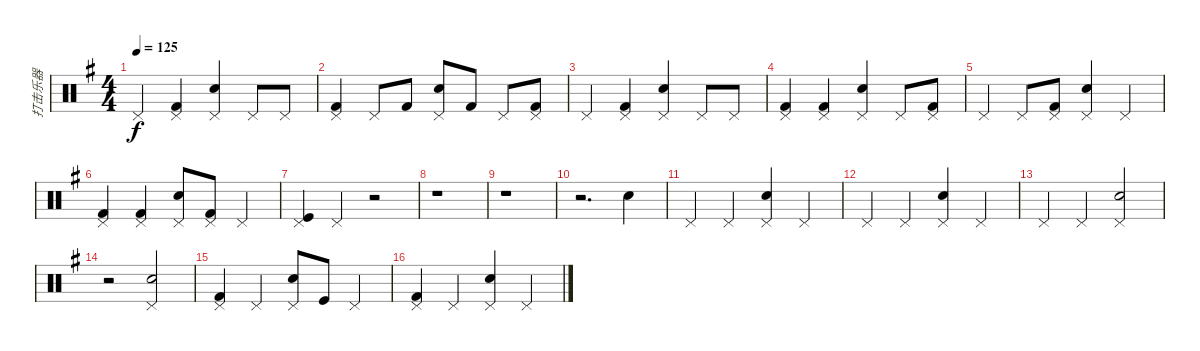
\track ("打击乐器" "打击乐器") {instrument percussion}
\staff {score}
\articulation defaults
\ts (4 4)
\tempo 125
\clef neutral
\ks g "Pedal Hi-Hat (hit)".4{dy f}
("Pedal Hi-Hat (hit)" "Kick (hit) 2").4 ("Pedal Hi-Hat (hit)" "Snare (hit) 2").4 "Pedal Hi-Hat (hit)".8 "Pedal Hi-Hat (hit)".8 |
("Pedal Hi-Hat (hit)" "Kick (hit) 2").4 "Pedal Hi-Hat (hit)".8 "Kick (hit) 2".8 ("Pedal Hi-Hat (hit)" "Snare (hit) 2").8 "Kick (hit) 2".8 "Pedal Hi-Hat (hit)".8 ("Pedal Hi-Hat (hit)" "Kick (hit) 2").8 |
"Pedal Hi-Hat (hit)".4 ("Pedal Hi-Hat (hit)" "Kick (hit) 2").4 ("Pedal Hi-Hat (hit)" "Snare (hit) 2").4 "Pedal Hi-Hat (hit)".8 "Pedal Hi-Hat (hit)".8 |
("Pedal Hi-Hat (hit)" "Kick (hit) 2").4 ("Pedal Hi-Hat (hit)" "Kick (hit) 2").4 ("Pedal Hi-Hat (hit)" "Snare (hit) 2").4 "Pedal Hi-Hat (hit)".8 ("Pedal Hi-Hat (hit)" "Kick (hit) 2").8 |
"Pedal Hi-Hat (hit)".4 "Pedal Hi-Hat (hit)".8 ("Pedal Hi-Hat (hit)" "Kick (hit) 2").8 ("Pedal Hi-Hat (hit)" "Snare (hit) 2").4 "Pedal Hi-Hat (hit)".4 |
("Pedal Hi-Hat (hit)" "Kick (hit) 2").4 ("Pedal Hi-Hat (hit)" "Kick (hit) 2").4 ("Pedal Hi-Hat (hit)" "Snare (hit) 2").8 ("Pedal Hi-Hat (hit)" "Kick (hit) 2").8 "Pedal Hi-Hat (hit)".4 |
("Pedal Hi-Hat (hit)" "Kick (hit)").4 "Pedal Hi-Hat (hit)".4 r.2 |
r.1 |
r.1 |
r.2{d} "Snare (hit) 2".4 |
"Pedal Hi-Hat (hit)".4 "Pedal Hi-Hat (hit)".4 ("Pedal Hi-Hat (hit)" "Snare (hit) 2").4 "Pedal Hi-Hat (hit)".4 |
"Pedal Hi-Hat (hit)".4 "Pedal Hi-Hat (hit)".4 ("Pedal Hi-Hat (hit)" "Snare (hit) 2").4 "Pedal Hi-Hat (hit)".4 |
"Pedal Hi-Hat (hit)".4 "Pedal Hi-Hat (hit)".4 ("Pedal Hi-Hat (hit)" "Snare (hit) 2").2 |
r.2 ("Pedal Hi-Hat (hit)" "Snare (hit) 2").2 |
("Pedal Hi-Hat (hit)" "Kick (hit) 2").4 "Pedal Hi-Hat (hit)".4 ("Pedal Hi-Hat (hit)" "Snare (hit) 2").8 "Kick (hit)".8 "Pedal Hi-Hat (hit)".4 |
("Pedal Hi-Hat (hit)" "Kick (hit) 2").4 "Pedal Hi-Hat (hit)".4 ("Pedal Hi-Hat (hit)" "Snare (hit) 2").4 "Pedal Hi-Hat (hit)".4
